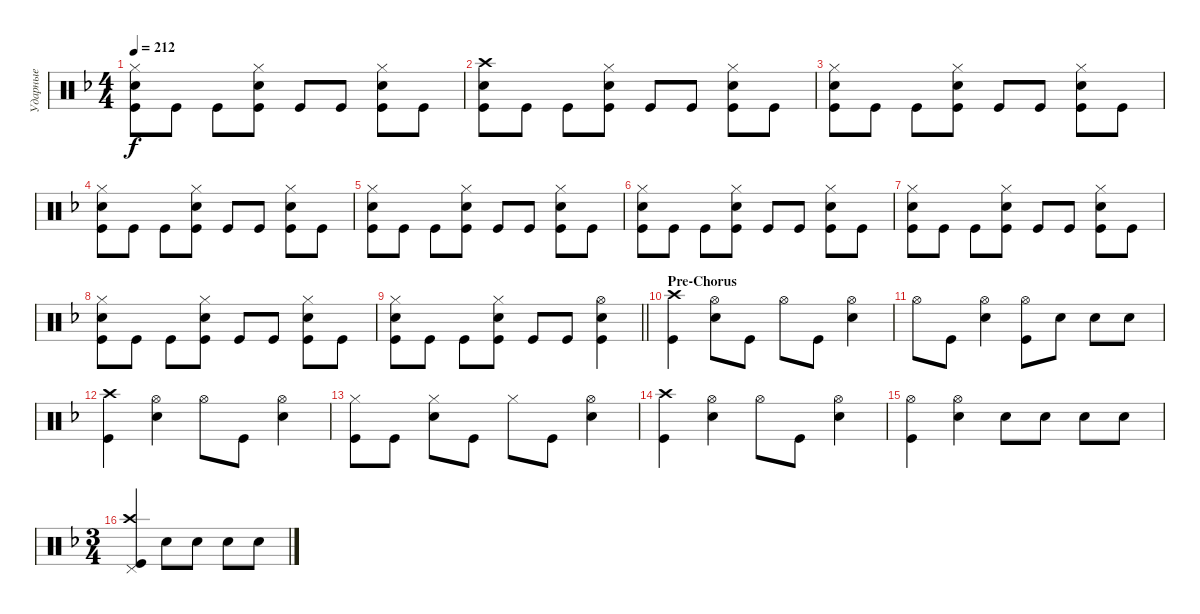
\track ("Ударные" "Ударные") {instrument percussion}
\staff {score}
\articulation defaults
\ts (4 4)
\tempo 212
\clef neutral
\ks dminor
("Hi-Hat (closed)" "Kick (hit)" "Snare (hit) 2").8{dy f} "Kick (hit)".8 "Kick (hit)".8 ("Snare (hit) 2" "Hi-Hat (closed)" "Kick (hit)").8 "Kick (hit)".8 "Kick (hit)".8 ("Hi-Hat (closed)" "Kick (hit)" "Snare (hit) 2").8 "Kick (hit)".8 |
("Crash high (hit)" "Kick (hit)" "Snare (hit) 2").8 "Kick (hit)".8 "Kick (hit)".8 ("Snare (hit) 2" "Hi-Hat (closed)" "Kick (hit)").8 "Kick (hit)".8 "Kick (hit)".8 ("Hi-Hat (closed)" "Kick (hit)" "Snare (hit) 2").8 "Kick (hit)".8 |
("Hi-Hat (closed)" "Kick (hit)" "Snare (hit) 2").8 "Kick (hit)".8 "Kick (hit)".8 ("Snare (hit) 2" "Hi-Hat (closed)" "Kick (hit)").8 "Kick (hit)".8 "Kick (hit)".8 ("Hi-Hat (closed)" "Kick (hit)" "Snare (hit) 2").8 "Kick (hit)".8 |
("Hi-Hat (closed)" "Kick (hit)" "Snare (hit) 2").8 "Kick (hit)".8 "Kick (hit)".8 ("Snare (hit) 2" "Hi-Hat (closed)" "Kick (hit)").8 "Kick (hit)".8 "Kick (hit)".8 ("Hi-Hat (closed)" "Kick (hit)" "Snare (hit) 2").8 "Kick (hit)".8 |
("Hi-Hat (closed)" "Kick (hit)" "Snare (hit) 2").8 "Kick (hit)".8 "Kick (hit)".8 ("Snare (hit) 2" "Hi-Hat (closed)" "Kick (hit)").8 "Kick (hit)".8 "Kick (hit)".8 ("Hi-Hat (closed)" "Kick (hit)" "Snare (hit) 2").8 "Kick (hit)".8 |
("Hi-Hat (closed)" "Kick (hit)" "Snare (hit) 2").8 "Kick (hit)".8 "Kick (hit)".8 ("Snare (hit) 2" "Hi-Hat (closed)" "Kick (hit)").8 "Kick (hit)".8 "Kick (hit)".8 ("Hi-Hat (closed)" "Kick (hit)" "Snare (hit) 2").8 "Kick (hit)".8 |
("Hi-Hat (closed)" "Kick (hit)" "Snare (hit) 2").8 "Kick (hit)".8 "Kick (hit)".8 ("Snare (hit) 2" "Hi-Hat (closed)" "Kick (hit)").8 "Kick (hit)".8 "Kick (hit)".8 ("Hi-Hat (closed)" "Kick (hit)" "Snare (hit) 2").8 "Kick (hit)".8 |
("Hi-Hat (closed)" "Kick (hit)" "Snare (hit) 2").8 "Kick (hit)".8 "Kick (hit)".8 ("Snare (hit) 2" "Hi-Hat (closed)" "Kick (hit)").8 "Kick (hit)".8 "Kick (hit)".8 ("Hi-Hat (closed)" "Kick (hit)" "Snare (hit) 2").8 "Kick (hit)".8 |
\barLineRight lightlight
("Hi-Hat (closed)" "Kick (hit)" "Snare (hit) 2").8 "Kick (hit)".8 "Kick (hit)".8 ("Snare (hit) 2" "Hi-Hat (closed)" "Kick (hit)").8 "Kick (hit)".8 "Kick (hit)".8 ("Hi-Hat (open)" "Kick (hit)" "Snare (hit) 2").4 |
\section ("" "Pre-Chorus")
("Kick (hit)" "Crash high (hit)").4 ("Snare (hit) 2" "Hi-Hat (open)").8 "Kick (hit)".8 "Hi-Hat (open)".8 "Kick (hit)".8 ("Snare (hit) 2" "Hi-Hat (open)").4 |
"Hi-Hat (open)".8 "Kick (hit)".8 ("Snare (hit) 2" "Hi-Hat (open)").4 ("Hi-Hat (open)" "Kick (hit)").8 "Snare (hit) 2".8 "Snare (hit) 2".8 "Snare (hit) 2".8 |
("Kick (hit)" "Crash high (hit)").4 ("Snare (hit) 2" "Hi-Hat (open)").4 "Hi-Hat (open)".8 "Kick (hit)".8 ("Snare (hit) 2" "Hi-Hat (open)").4 |
("Hi-Hat (closed)" "Kick (hit)").8 "Kick (hit)".8 ("Hi-Hat (closed)" "Snare (hit) 2").8 "Kick (hit)".8 "Hi-Hat (closed)".8 "Kick (hit)".8 ("Snare (hit) 2" "Hi-Hat (open)").4 |
("Kick (hit)" "Crash high (hit)").4 ("Snare (hit) 2" "Hi-Hat (open)").4 "Hi-Hat (open)".8 "Kick (hit)".8 ("Snare (hit) 2" "Hi-Hat (open)").4 |
("Hi-Hat (open)" "Kick (hit)").4 ("Hi-Hat (open)" "Snare (hit) 2").4 "Snare (hit) 2".8 "Snare (hit) 2".8 "Snare (hit) 2".8 "Snare (hit) 2".8 |
\ts (3 4)
("Kick (hit)" "Crash high (hit)" "Pedal Hi-Hat (hit)").4 "Snare (hit) 2".8 "Snare (hit) 2".8 "Snare (hit) 2".8 "Snare (hit) 2".8
